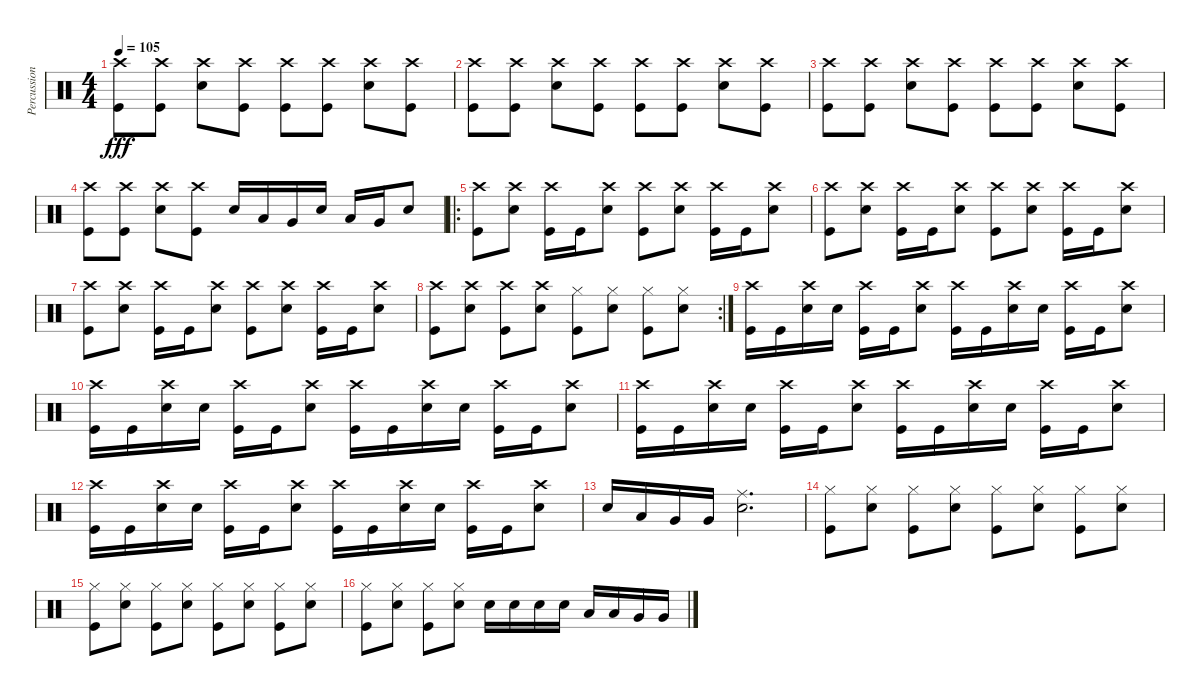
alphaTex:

\track ("Percussions" "Percussion") {instrument percussion}
\staff {score}
\articulation defaults
\ts (4 4)
\tempo 105
\clef neutral
\ks c
("Crash high (hit)" "Kick (hit)").8{dy fff} ("Crash high (hit)" "Kick (hit)").8 ("Crash high (hit)" "Electric Snare (hit)").8 ("Crash high (hit)" "Kick (hit)").8 ("Crash high (hit)" "Kick (hit)").8 ("Crash high (hit)" "Kick (hit)").8 ("Crash high (hit)" "Electric Snare (hit)").8 ("Crash high (hit)" "Kick (hit)").8 |
("Crash high (hit)" "Kick (hit)").8 ("Crash high (hit)" "Kick (hit)").8 ("Crash high (hit)" "Electric Snare (hit)").8 ("Crash high (hit)" "Kick (hit)").8 ("Crash high (hit)" "Kick (hit)").8 ("Crash high (hit)" "Kick (hit)").8 ("Crash high (hit)" "Electric Snare (hit)").8 ("Crash high (hit)" "Kick (hit)").8 |
("Crash high (hit)" "Kick (hit)").8 ("Crash high (hit)" "Kick (hit)").8 ("Crash high (hit)" "Electric Snare (hit)").8 ("Crash high (hit)" "Kick (hit)").8 ("Crash high (hit)" "Kick (hit)").8 ("Crash high (hit)" "Kick (hit)").8 ("Crash high (hit)" "Electric Snare (hit)").8 ("Crash high (hit)" "Kick (hit)").8 |
("Crash high (hit)" "Kick (hit)").8 ("Crash high (hit)" "Kick (hit)").8 ("Crash high (hit)" "Electric Snare (hit)").8 ("Crash high (hit)" "Kick (hit)").8 "Electric Snare (hit)".16 "Low Tom (hit)".16 "Very Low Tom (hit)".16 "Electric Snare (hit)".16 "Low Tom (hit)".16 "Very Low Tom (hit)".16 "Electric Snare (hit)".8 |
\ro
("Crash high (hit)" "Kick (hit)").8 ("Crash high (hit)" "Electric Snare (hit)").8 ("Crash high (hit)" "Kick (hit)").16 "Kick (hit)".16 ("Crash high (hit)" "Electric Snare (hit)").8 ("Crash high (hit)" "Kick (hit)").8 ("Crash high (hit)" "Electric Snare (hit)").8 ("Crash high (hit)" "Kick (hit)").16 "Kick (hit)".16 ("Crash high (hit)" "Electric Snare (hit)").8 |
("Crash high (hit)" "Kick (hit)").8 ("Crash high (hit)" "Electric Snare (hit)").8 ("Crash high (hit)" "Kick (hit)").16 "Kick (hit)".16 ("Crash high (hit)" "Electric Snare (hit)").8 ("Crash high (hit)" "Kick (hit)").8 ("Crash high (hit)" "Electric Snare (hit)").8 ("Crash high (hit)" "Kick (hit)").16 "Kick (hit)".16 ("Crash high (hit)" "Electric Snare (hit)").8 |
("Crash high (hit)" "Kick (hit)").8 ("Crash high (hit)" "Electric Snare (hit)").8 ("Crash high (hit)" "Kick (hit)").16 "Kick (hit)".16 ("Crash high (hit)" "Electric Snare (hit)").8 ("Crash high (hit)" "Kick (hit)").8 ("Crash high (hit)" "Electric Snare (hit)").8 ("Crash high (hit)" "Kick (hit)").16 "Kick (hit)".16 ("Crash high (hit)" "Electric Snare (hit)").8 |
\rc 2
("Crash high (hit)" "Kick (hit)").8 ("Crash high (hit)" "Electric Snare (hit)").8 ("Crash high (hit)" "Kick (hit)").8 ("Crash high (hit)" "Electric Snare (hit)").8 ("Hi-Hat (closed)" "Kick (hit)").8 ("Hi-Hat (closed)" "Electric Snare (hit)").8 ("Hi-Hat (closed)" "Kick (hit)").8 ("Hi-Hat (closed)" "Electric Snare (hit)").8 |
("Crash high (hit)" "Kick (hit)").16 "Kick (hit)".16 ("Crash high (hit)" "Electric Snare (hit)").16 "Electric Snare (hit)".16 ("Crash high (hit)" "Kick (hit)").16 "Kick (hit)".16 ("Crash high (hit)" "Electric Snare (hit)").8 ("Crash high (hit)" "Kick (hit)").16 "Kick (hit)".16 ("Crash high (hit)" "Electric Snare (hit)").16 "Electric Snare (hit)".16 ("Crash high (hit)" "Kick (hit)").16 "Kick (hit)".16 ("Crash high (hit)" "Electric Snare (hit)").8 |
("Crash high (hit)" "Kick (hit)").16 "Kick (hit)".16 ("Crash high (hit)" "Electric Snare (hit)").16 "Electric Snare (hit)".16 ("Crash high (hit)" "Kick (hit)").16 "Kick (hit)".16 ("Crash high (hit)" "Electric Snare (hit)").8 ("Crash high (hit)" "Kick (hit)").16 "Kick (hit)".16 ("Crash high (hit)" "Electric Snare (hit)").16 "Electric Snare (hit)".16 ("Crash high (hit)" "Kick (hit)").16 "Kick (hit)".16 ("Crash high (hit)" "Electric Snare (hit)").8 |
("Crash high (hit)" "Kick (hit)").16 "Kick (hit)".16 ("Crash high (hit)" "Electric Snare (hit)").16 "Electric Snare (hit)".16 ("Crash high (hit)" "Kick (hit)").16 "Kick (hit)".16 ("Crash high (hit)" "Electric Snare (hit)").8 ("Crash high (hit)" "Kick (hit)").16 "Kick (hit)".16 ("Crash high (hit)" "Electric Snare (hit)").16 "Electric Snare (hit)".16 ("Crash high (hit)" "Kick (hit)").16 "Kick (hit)".16 ("Crash high (hit)" "Electric Snare (hit)").8 |
("Crash high (hit)" "Kick (hit)").16 "Kick (hit)".16 ("Crash high (hit)" "Electric Snare (hit)").16 "Electric Snare (hit)".16 ("Crash high (hit)" "Kick (hit)").16 "Kick (hit)".16 ("Crash high (hit)" "Electric Snare (hit)").8 ("Crash high (hit)" "Kick (hit)").16 "Kick (hit)".16 ("Crash high (hit)" "Electric Snare (hit)").16 "Electric Snare (hit)".16 ("Crash high (hit)" "Kick (hit)").16 "Kick (hit)".16 ("Crash high (hit)" "Electric Snare (hit)").8 |
"Electric Snare (hit)".16 "Low Tom (hit)".16 "Very Low Tom (hit)".16 "Very Low Tom (hit)".16 ("Ride (middle)" "Electric Snare (hit)").2{d} |
("Hi-Hat (closed)" "Kick (hit)").8 ("Hi-Hat (closed)" "Electric Snare (hit)").8 ("Hi-Hat (closed)" "Kick (hit)").8 ("Hi-Hat (closed)" "Electric Snare (hit)").8 ("Hi-Hat (closed)" "Kick (hit)").8 ("Hi-Hat (closed)" "Electric Snare (hit)").8 ("Hi-Hat (closed)" "Kick (hit)").8 ("Hi-Hat (closed)" "Electric Snare (hit)").8 |
("Hi-Hat (closed)" "Kick (hit)").8 ("Hi-Hat (closed)" "Electric Snare (hit)").8 ("Hi-Hat (closed)" "Kick (hit)").8 ("Hi-Hat (closed)" "Electric Snare (hit)").8 ("Hi-Hat (closed)" "Kick (hit)").8 ("Hi-Hat (closed)" "Electric Snare (hit)").8 ("Hi-Hat (closed)" "Kick (hit)").8 ("Hi-Hat (closed)" "Electric Snare (hit)").8 |
("Hi-Hat (closed)" "Kick (hit)").8 ("Hi-Hat (closed)" "Electric Snare (hit)").8 ("Hi-Hat (closed)" "Kick (hit)").8 ("Hi-Hat (closed)" "Electric Snare (hit)").8 "Electric Snare (hit)".16 "Electric Snare (hit)".16 "Electric Snare (hit)".16 "Electric Snare (hit)".16 "Low Tom (hit)".16 "Low Tom (hit)".16 "Very Low Tom (hit)".16 "Very Low Tom (hit)".16
